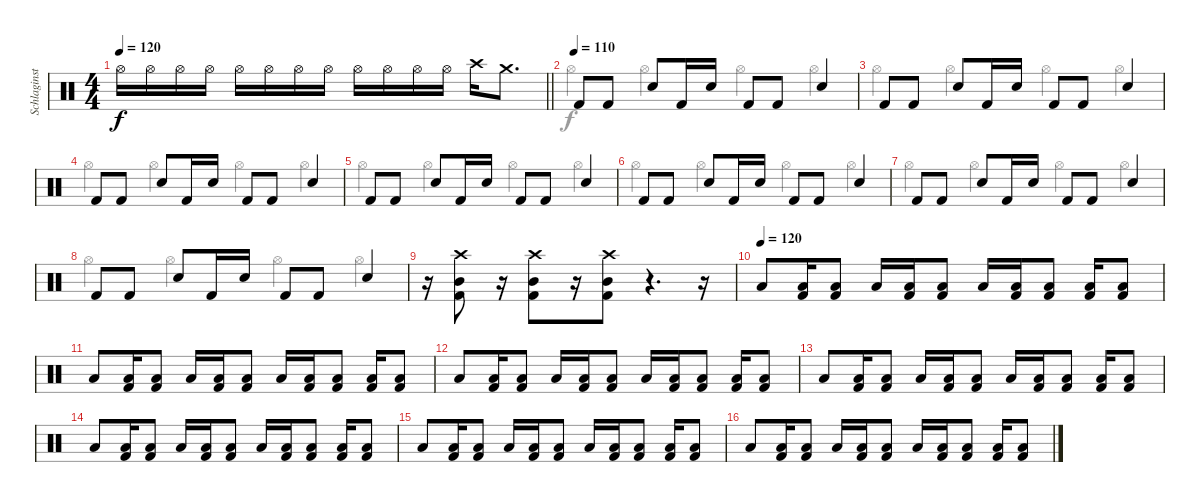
\track ("Schlaginstrumente - Auswahl" "Schlaginst") {instrument percussion}
\staff {score}
\articulation defaults
\voice
\ts (4 4)
\tempo 120
\clef neutral
\barLineRight lightlight
\ks c "Hi-Hat (open)".16{dy f volume 13} "Hi-Hat (open)".16 "Hi-Hat (open)".16 "Hi-Hat (open)".16 "Hi-Hat (open)".16 "Hi-Hat (open)".16 "Hi-Hat (open)".16 "Hi-Hat (open)".16 "Hi-Hat (open)".16 "Hi-Hat (open)".16 "Hi-Hat (open)".16 "Hi-Hat (open)".16 "Crash high (hit)".16 "Crash medium (hit)".8{d}
|
\tempo (110)
"Kick (hit) 2".8 "Kick (hit) 2".8 "Snare (hit) 2".8 "Kick (hit) 2".16 "Snare (hit) 2".16 "Kick (hit) 2".8 "Kick (hit) 2".8 "Snare (hit) 2".4 |
"Kick (hit) 2".8 "Kick (hit) 2".8 "Snare (hit) 2".8 "Kick (hit) 2".16 "Snare (hit) 2".16 "Kick (hit) 2".8 "Kick (hit) 2".8 "Snare (hit) 2".4 |
"Kick (hit) 2".8 "Kick (hit) 2".8 "Snare (hit) 2".8 "Kick (hit) 2".16 "Snare (hit) 2".16 "Kick (hit) 2".8 "Kick (hit) 2".8 "Snare (hit) 2".4 |
"Kick (hit) 2".8 "Kick (hit) 2".8 "Snare (hit) 2".8 "Kick (hit) 2".16 "Snare (hit) 2".16 "Kick (hit) 2".8 "Kick (hit) 2".8 "Snare (hit) 2".4 |
"Kick (hit) 2".8 "Kick (hit) 2".8 "Snare (hit) 2".8 "Kick (hit) 2".16 "Snare (hit) 2".16 "Kick (hit) 2".8 "Kick (hit) 2".8 "Snare (hit) 2".4 |
"Kick (hit) 2".8 "Kick (hit) 2".8 "Snare (hit) 2".8 "Kick (hit) 2".16 "Snare (hit) 2".16 "Kick (hit) 2".8 "Kick (hit) 2".8 "Snare (hit) 2".4 |
"Kick (hit) 2".8 "Kick (hit) 2".8 "Snare (hit) 2".8 "Kick (hit) 2".16 "Snare (hit) 2".16 "Kick (hit) 2".8 "Kick (hit) 2".8 "Snare (hit) 2".4 |
r.16 ("Crash high (hit)" "Mid Tom (hit)" "Kick (hit) 2").8 r.16 ("Crash high (hit)" "Mid Tom (hit)" "Kick (hit) 2").8 r.16 ("Crash high (hit)" "Mid Tom (hit)" "Kick (hit) 2").8 r.4{d} r.16 |
\tempo (120)
"Low Tom (hit)".8 ("Low Tom (hit)" "Kick (hit) 2").16 ("Low Tom (hit)" "Kick (hit) 2").8 "Low Tom (hit)".16 ("Low Tom (hit)" "Kick (hit) 2").16 ("Low Tom (hit)" "Kick (hit) 2").8 "Low Tom (hit)".16 ("Low Tom (hit)" "Kick (hit) 2").16 ("Low Tom (hit)" "Kick (hit) 2").8 ("Low Tom (hit)" "Kick (hit) 2").16 ("Low Tom (hit)" "Kick (hit) 2").8 |
"Low Tom (hit)".8 ("Low Tom (hit)" "Kick (hit) 2").16 ("Low Tom (hit)" "Kick (hit) 2").8 "Low Tom (hit)".16 ("Low Tom (hit)" "Kick (hit) 2").16 ("Low Tom (hit)" "Kick (hit) 2").8 "Low Tom (hit)".16 ("Low Tom (hit)" "Kick (hit) 2").16 ("Low Tom (hit)" "Kick (hit) 2").8 ("Low Tom (hit)" "Kick (hit) 2").16 ("Low Tom (hit)" "Kick (hit) 2").8 |
"Low Tom (hit)".8 ("Low Tom (hit)" "Kick (hit) 2").16 ("Low Tom (hit)" "Kick (hit) 2").8 "Low Tom (hit)".16 ("Low Tom (hit)" "Kick (hit) 2").16 ("Low Tom (hit)" "Kick (hit) 2").8 "Low Tom (hit)".16 ("Low Tom (hit)" "Kick (hit) 2").16 ("Low Tom (hit)" "Kick (hit) 2").8 ("Low Tom (hit)" "Kick (hit) 2").16 ("Low Tom (hit)" "Kick (hit) 2").8 |
"Low Tom (hit)".8 ("Low Tom (hit)" "Kick (hit) 2").16 ("Low Tom (hit)" "Kick (hit) 2").8 "Low Tom (hit)".16 ("Low Tom (hit)" "Kick (hit) 2").16 ("Low Tom (hit)" "Kick (hit) 2").8 "Low Tom (hit)".16 ("Low Tom (hit)" "Kick (hit) 2").16 ("Low Tom (hit)" "Kick (hit) 2").8 ("Low Tom (hit)" "Kick (hit) 2").16 ("Low Tom (hit)" "Kick (hit) 2").8 |
"Low Tom (hit)".8 ("Low Tom (hit)" "Kick (hit) 2").16 ("Low Tom (hit)" "Kick (hit) 2").8 "Low Tom (hit)".16 ("Low Tom (hit)" "Kick (hit) 2").16 ("Low Tom (hit)" "Kick (hit) 2").8 "Low Tom (hit)".16 ("Low Tom (hit)" "Kick (hit) 2").16 ("Low Tom (hit)" "Kick (hit) 2").8 ("Low Tom (hit)" "Kick (hit) 2").16 ("Low Tom (hit)" "Kick (hit) 2").8 |
"Low Tom (hit)".8 ("Low Tom (hit)" "Kick (hit) 2").16 ("Low Tom (hit)" "Kick (hit) 2").8 "Low Tom (hit)".16 ("Low Tom (hit)" "Kick (hit) 2").16 ("Low Tom (hit)" "Kick (hit) 2").8 "Low Tom (hit)".16 ("Low Tom (hit)" "Kick (hit) 2").16 ("Low Tom (hit)" "Kick (hit) 2").8 ("Low Tom (hit)" "Kick (hit) 2").16 ("Low Tom (hit)" "Kick (hit) 2").8 |
"Low Tom (hit)".8 ("Low Tom (hit)" "Kick (hit) 2").16 ("Low Tom (hit)" "Kick (hit) 2").8 "Low Tom (hit)".16 ("Low Tom (hit)" "Kick (hit) 2").16 ("Low Tom (hit)" "Kick (hit) 2").8 "Low Tom (hit)".16 ("Low Tom (hit)" "Kick (hit) 2").16 ("Low Tom (hit)" "Kick (hit) 2").8 ("Low Tom (hit)" "Kick (hit) 2").16 ("Low Tom (hit)" "Kick (hit) 2").8
\voice
\clef neutral
\ottava regular
\simile none
\barLineRight lightlight
\ks c
|
"Hi-Hat (open)".4 "Hi-Hat (open)".4 "Hi-Hat (open)".4 "Hi-Hat (open)".4 |
"Hi-Hat (open)".4 "Hi-Hat (open)".4 "Hi-Hat (open)".4 "Hi-Hat (open)".4 |
"Hi-Hat (open)".4 "Hi-Hat (open)".4 "Hi-Hat (open)".4 "Hi-Hat (open)".4 |
"Hi-Hat (open)".4 "Hi-Hat (open)".4 "Hi-Hat (open)".4 "Hi-Hat (open)".4 |
"Hi-Hat (open)".4 "Hi-Hat (open)".4 "Hi-Hat (open)".4 "Hi-Hat (open)".4 |
"Hi-Hat (open)".4 "Hi-Hat (open)".4 "Hi-Hat (open)".4 "Hi-Hat (open)".4 |
"Hi-Hat (open)".4 "Hi-Hat (open)".4 "Hi-Hat (open)".4 "Hi-Hat (open)".4 |
|
|
|
|
|
|
|
